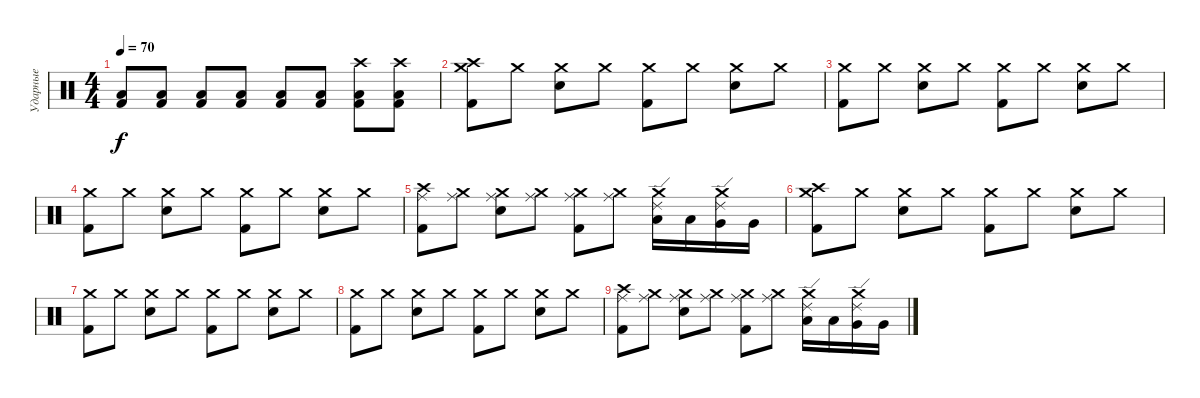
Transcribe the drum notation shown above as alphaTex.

\track ("Ударные" "Ударные") {instrument percussion}
\staff {score}
\articulation defaults
\ts (4 4)
\tempo 70
\clef neutral
\ks c
("Kick (hit) 2" "Low Floor Tom (hit)").8{dy f volume 16} ("Kick (hit) 2" "Low Floor Tom (hit)").8 ("Kick (hit) 2" "Low Floor Tom (hit)").8 ("Kick (hit) 2" "Low Floor Tom (hit)").8 ("Kick (hit) 2" "Low Floor Tom (hit)").8 ("Kick (hit) 2" "Low Floor Tom (hit)").8 ("Kick (hit) 2" "Low Floor Tom (hit)" "Crash high (hit)").8 ("Kick (hit) 2" "Low Floor Tom (hit)" "Crash high (hit)").8 |
("Crash medium (hit)" "Kick (hit) 2" "Crash high (hit)").8 "Crash medium (hit)".8 ("Crash medium (hit)" "Electric Snare (hit)").8 "Crash medium (hit)".8 ("Crash medium (hit)" "Kick (hit) 2").8 "Crash medium (hit)".8 ("Crash medium (hit)" "Electric Snare (hit)").8 "Crash medium (hit)".8 |
("Crash medium (hit)" "Kick (hit) 2").8 "Crash medium (hit)".8 ("Crash medium (hit)" "Electric Snare (hit)").8 "Crash medium (hit)".8 ("Crash medium (hit)" "Kick (hit) 2").8 "Crash medium (hit)".8 ("Crash medium (hit)" "Electric Snare (hit)").8 "Crash medium (hit)".8 |
("Crash medium (hit)" "Kick (hit) 2").8 "Crash medium (hit)".8 ("Crash medium (hit)" "Electric Snare (hit)").8 "Crash medium (hit)".8 ("Crash medium (hit)" "Kick (hit) 2").8 "Crash medium (hit)".8 ("Crash medium (hit)" "Electric Snare (hit)").8 "Crash medium (hit)".8 |
("Ride (middle)" "Kick (hit) 2" "Crash high (hit)").8 ("Crash medium (hit)" "Ride (middle)").8 ("Crash medium (hit)" "Electric Snare (hit)" "Ride (middle)").8 ("Crash medium (hit)" "Ride (middle)").8 ("Crash medium (hit)" "Kick (hit) 2" "Ride (middle)").8 ("Crash medium (hit)" "Ride (middle)").8 ("Low Tom (hit)" "Crash medium (hit)" "Ride (edge) 2").16 "Low Tom (hit)".16 ("Very Low Tom (hit)" "Ride (edge) 2" "Crash medium (hit)").16 "Very Low Tom (hit)".16 |
("Crash medium (hit)" "Kick (hit) 2" "Crash high (hit)").8 "Crash medium (hit)".8 ("Crash medium (hit)" "Electric Snare (hit)").8 "Crash medium (hit)".8 ("Crash medium (hit)" "Kick (hit) 2").8 "Crash medium (hit)".8 ("Crash medium (hit)" "Electric Snare (hit)").8 "Crash medium (hit)".8 |
("Crash medium (hit)" "Kick (hit) 2").8 "Crash medium (hit)".8 ("Crash medium (hit)" "Electric Snare (hit)").8 "Crash medium (hit)".8 ("Crash medium (hit)" "Kick (hit) 2").8 "Crash medium (hit)".8 ("Crash medium (hit)" "Electric Snare (hit)").8 "Crash medium (hit)".8 |
("Crash medium (hit)" "Kick (hit) 2").8 "Crash medium (hit)".8 ("Crash medium (hit)" "Electric Snare (hit)").8 "Crash medium (hit)".8 ("Crash medium (hit)" "Kick (hit) 2").8 "Crash medium (hit)".8 ("Crash medium (hit)" "Electric Snare (hit)").8 "Crash medium (hit)".8 |
("Ride (middle)" "Kick (hit) 2" "Crash high (hit)").8 ("Crash medium (hit)" "Ride (middle)").8 ("Crash medium (hit)" "Electric Snare (hit)" "Ride (middle)").8 ("Crash medium (hit)" "Ride (middle)").8 ("Crash medium (hit)" "Kick (hit) 2" "Ride (middle)").8 ("Crash medium (hit)" "Ride (middle)").8 ("Low Tom (hit)" "Crash medium (hit)" "Ride (edge) 2").16 "Low Tom (hit)".16 ("Very Low Tom (hit)" "Ride (edge) 2" "Crash medium (hit)").16 "Very Low Tom (hit)".16
